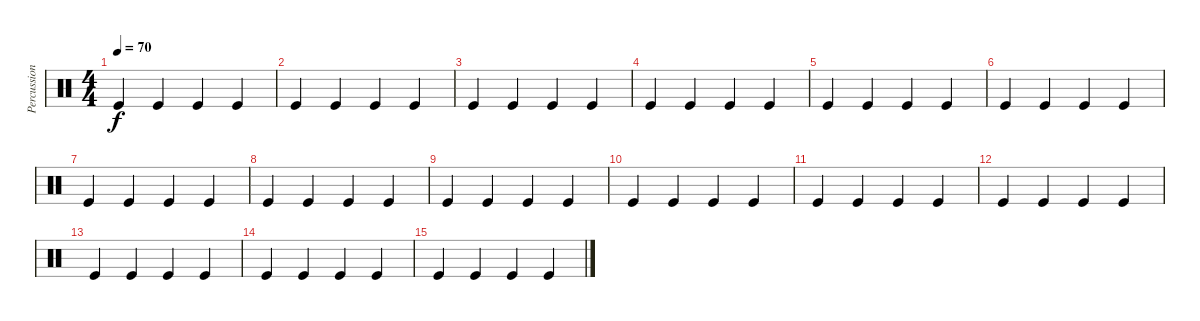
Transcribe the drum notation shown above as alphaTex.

\track ("Percussion" "Percussion") {instrument percussion}
\staff {score}
\articulation defaults
\ts (4 4)
\tempo 70
\clef neutral
\ks c "Kick (hit)".4{dy f} "Kick (hit)".4 "Kick (hit)".4 "Kick (hit)".4
|
"Kick (hit)".4 "Kick (hit)".4 "Kick (hit)".4 "Kick (hit)".4 |
"Kick (hit)".4 "Kick (hit)".4 "Kick (hit)".4 "Kick (hit)".4 |
"Kick (hit)".4 "Kick (hit)".4 "Kick (hit)".4 "Kick (hit)".4 |
"Kick (hit)".4 "Kick (hit)".4 "Kick (hit)".4 "Kick (hit)".4 |
"Kick (hit)".4 "Kick (hit)".4 "Kick (hit)".4 "Kick (hit)".4 |
"Kick (hit)".4 "Kick (hit)".4 "Kick (hit)".4 "Kick (hit)".4 |
"Kick (hit)".4 "Kick (hit)".4 "Kick (hit)".4 "Kick (hit)".4 |
"Kick (hit)".4 "Kick (hit)".4 "Kick (hit)".4 "Kick (hit)".4 |
"Kick (hit)".4 "Kick (hit)".4 "Kick (hit)".4 "Kick (hit)".4 |
"Kick (hit)".4 "Kick (hit)".4 "Kick (hit)".4 "Kick (hit)".4 |
"Kick (hit)".4 "Kick (hit)".4 "Kick (hit)".4 "Kick (hit)".4 |
"Kick (hit)".4 "Kick (hit)".4 "Kick (hit)".4 "Kick (hit)".4 |
"Kick (hit)".4 "Kick (hit)".4 "Kick (hit)".4 "Kick (hit)".4 |
"Kick (hit)".4 "Kick (hit)".4 "Kick (hit)".4 "Kick (hit)".4
